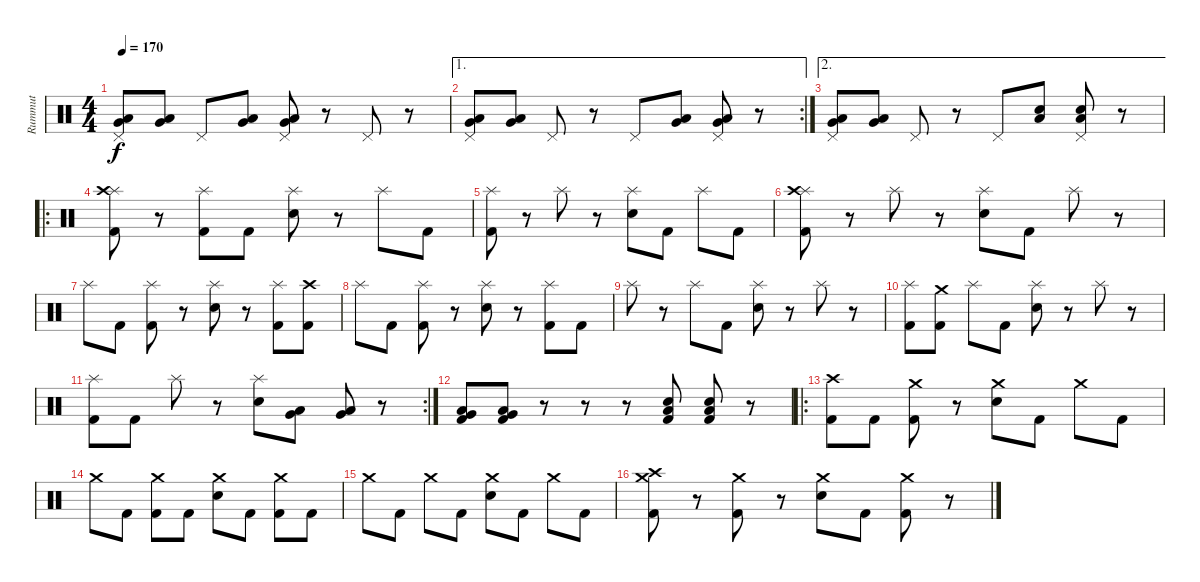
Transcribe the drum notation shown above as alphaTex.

\track ("Rummut" "Rummut") {instrument percussion}
\staff {score}
\articulation defaults
\ts (4 4)
\tempo 170
\clef neutral
\ks c
("Pedal Hi-Hat (hit)" "Very Low Tom (hit)" "Low Floor Tom (hit)").8{dy f} ("Very Low Tom (hit)" "Low Floor Tom (hit)").8 "Pedal Hi-Hat (hit)".8 ("Very Low Tom (hit)" "Low Floor Tom (hit)").8 ("Pedal Hi-Hat (hit)" "Very Low Tom (hit)" "Low Floor Tom (hit)").8 r.8 "Pedal Hi-Hat (hit)".8 r.8 |
\ae 1
\rc 2
("Pedal Hi-Hat (hit)" "Very Low Tom (hit)" "Low Floor Tom (hit)").8 ("Very Low Tom (hit)" "Low Floor Tom (hit)").8 "Pedal Hi-Hat (hit)".8 r.8 "Pedal Hi-Hat (hit)".8 ("Very Low Tom (hit)" "Low Floor Tom (hit)").8 ("Pedal Hi-Hat (hit)" "Very Low Tom (hit)" "Low Floor Tom (hit)").8 r.8 |
\ae 2
("Pedal Hi-Hat (hit)" "Very Low Tom (hit)" "Low Floor Tom (hit)").8 ("Very Low Tom (hit)" "Low Floor Tom (hit)").8 "Pedal Hi-Hat (hit)".8 r.8 "Pedal Hi-Hat (hit)".8 ("Low Floor Tom (hit)" "Electric Snare (hit)").8 ("Pedal Hi-Hat (hit)" "Low Floor Tom (hit)" "Electric Snare (hit)").8 r.8 |
\ro
("Splash (hit)" "Crash high (hit)" "Kick (hit) 2").8 r.8 ("Splash (hit)" "Kick (hit) 2").8 "Kick (hit) 2".8 ("Splash (hit)" "Electric Snare (hit)").8 r.8 "Splash (hit)".8 "Kick (hit) 2".8 |
("Splash (hit)" "Kick (hit) 2").8 r.8 "Splash (hit)".8 r.8 ("Splash (hit)" "Electric Snare (hit)").8 "Kick (hit) 2".8 "Splash (hit)".8 "Kick (hit) 2".8 |
("Splash (hit)" "Crash high (hit)" "Kick (hit) 2").8 r.8 "Splash (hit)".8 r.8 ("Splash (hit)" "Electric Snare (hit)").8 "Kick (hit) 2".8 "Splash (hit)".8 r.8 |
"Splash (hit)".8 "Kick (hit) 2".8 ("Splash (hit)" "Kick (hit) 2").8 r.8 ("Splash (hit)" "Electric Snare (hit)").8 r.8 ("Splash (hit)" "Kick (hit) 2").8 ("Crash high (hit)" "Kick (hit) 2").8 |
"Splash (hit)".8 "Kick (hit) 2".8 ("Splash (hit)" "Kick (hit) 2").8 r.8 ("Splash (hit)" "Electric Snare (hit)").8 r.8 ("Splash (hit)" "Kick (hit) 2").8 "Kick (hit) 2".8 |
"Splash (hit)".8 r.8 "Splash (hit)".8 "Kick (hit) 2".8 ("Splash (hit)" "Electric Snare (hit)").8 r.8 "Splash (hit)".8 r.8 |
("Splash (hit)" "Kick (hit) 2").8 ("Crash medium (hit)" "Kick (hit) 2").8 "Splash (hit)".8 "Kick (hit) 2".8 ("Splash (hit)" "Electric Snare (hit)").8 r.8 "Splash (hit)".8 r.8 |
\rc 2
("Splash (hit)" "Kick (hit) 2").8 "Kick (hit) 2".8 "Splash (hit)".8 r.8 ("Splash (hit)" "Electric Snare (hit)").8 ("Very Low Tom (hit)" "Low Floor Tom (hit)").8 ("Very Low Tom (hit)" "Low Floor Tom (hit)").8 r.8 |
("Very Low Tom (hit)" "Low Floor Tom (hit)" "Kick (hit) 2").8 ("Very Low Tom (hit)" "Low Floor Tom (hit)" "Kick (hit) 2").8 r.8 r.8 r.8 ("Low Floor Tom (hit)" "Electric Snare (hit)" "Kick (hit) 2").8 ("Low Floor Tom (hit)" "Electric Snare (hit)" "Kick (hit) 2").8 r.8 |
\ro
("Crash high (hit)" "Kick (hit) 2").8 "Kick (hit) 2".8 ("Crash medium (hit)" "Kick (hit) 2").8 r.8 ("Crash medium (hit)" "Electric Snare (hit)").8 "Kick (hit) 2".8 "Crash medium (hit)".8 "Kick (hit) 2".8 |
"Crash medium (hit)".8 "Kick (hit) 2".8 ("Crash medium (hit)" "Kick (hit) 2").8 "Kick (hit) 2".8 ("Crash medium (hit)" "Electric Snare (hit)").8 "Kick (hit) 2".8 ("Crash medium (hit)" "Kick (hit) 2").8 "Kick (hit) 2".8 |
"Crash medium (hit)".8 "Kick (hit) 2".8 "Crash medium (hit)".8 "Kick (hit) 2".8 ("Crash medium (hit)" "Electric Snare (hit)").8 "Kick (hit) 2".8 "Crash medium (hit)".8 "Kick (hit) 2".8 |
("Crash medium (hit)" "Crash high (hit)" "Kick (hit) 2").8 r.8 ("Crash medium (hit)" "Kick (hit) 2").8 r.8 ("Crash medium (hit)" "Electric Snare (hit)").8 "Kick (hit) 2".8 ("Crash medium (hit)" "Kick (hit) 2").8 r.8
